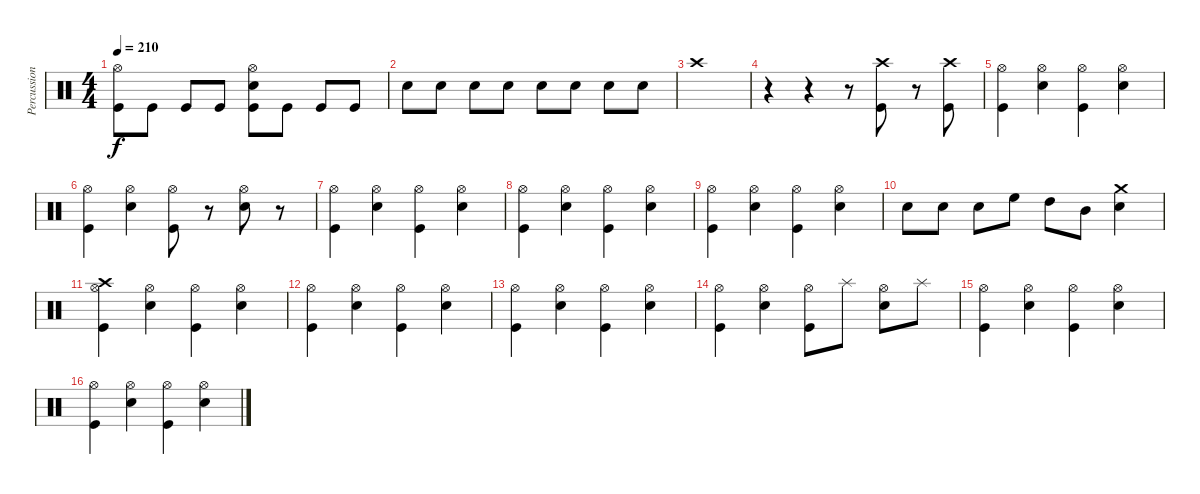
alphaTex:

\track ("Percussion" "Percussion") {instrument percussion}
\staff {score}
\articulation defaults
\ts (4 4)
\tempo 210
\clef neutral
\ks c
("Hi-Hat (open)" "Kick (hit)").8{dy f} "Kick (hit)".8 "Kick (hit)".8 "Kick (hit)".8 ("Snare (hit) 2" "Hi-Hat (open)" "Kick (hit)").8 "Kick (hit)".8 "Kick (hit)".8 "Kick (hit)".8 |
"Snare (hit) 2".8{volume 0} "Snare (hit) 2".8{volume 16} "Snare (hit) 2".8 "Snare (hit) 2".8 "Snare (hit) 2".8 "Snare (hit) 2".8 "Snare (hit) 2".8 "Snare (hit) 2".8 |
"Crash high (hit)".1 |
r.4 r.4 r.8 ("Crash high (hit)" "Kick (hit)").8 r.8 ("Crash high (hit)" "Kick (hit)").8 |
("Hi-Hat (open)" "Kick (hit)").4 ("Snare (hit) 2" "Hi-Hat (open)").4 ("Hi-Hat (open)" "Kick (hit)").4 ("Snare (hit) 2" "Hi-Hat (open)").4 |
("Hi-Hat (open)" "Kick (hit)").4 ("Snare (hit) 2" "Hi-Hat (open)").4 ("Hi-Hat (open)" "Kick (hit)").8 r.8 ("Snare (hit) 2" "Hi-Hat (open)").8 r.8 |
("Hi-Hat (open)" "Kick (hit)").4 ("Snare (hit) 2" "Hi-Hat (open)").4 ("Hi-Hat (open)" "Kick (hit)").4 ("Snare (hit) 2" "Hi-Hat (open)").4 |
("Hi-Hat (open)" "Kick (hit)").4 ("Snare (hit) 2" "Hi-Hat (open)").4 ("Hi-Hat (open)" "Kick (hit)").4 ("Snare (hit) 2" "Hi-Hat (open)").4 |
("Hi-Hat (open)" "Kick (hit)").4 ("Snare (hit) 2" "Hi-Hat (open)").4 ("Hi-Hat (open)" "Kick (hit)").4 ("Snare (hit) 2" "Hi-Hat (open)").4 |
"Snare (hit) 2".8 "Snare (hit) 2".8 "Snare (hit) 2".8 "High Floor Tom (hit)".8 "High Tom (hit)".8 "Mid Tom (hit)".8 ("Snare (hit) 2" "Crash medium (hit)").4 |
("Crash high (hit)" "Hi-Hat (open)" "Kick (hit)").4 ("Snare (hit) 2" "Hi-Hat (open)").4 ("Hi-Hat (open)" "Kick (hit)").4 ("Snare (hit) 2" "Hi-Hat (open)").4 |
("Hi-Hat (open)" "Kick (hit)").4 ("Snare (hit) 2" "Hi-Hat (open)").4 ("Hi-Hat (open)" "Kick (hit)").4 ("Snare (hit) 2" "Hi-Hat (open)").4 |
("Hi-Hat (open)" "Kick (hit)").4 ("Snare (hit) 2" "Hi-Hat (open)").4 ("Hi-Hat (open)" "Kick (hit)").4 ("Snare (hit) 2" "Hi-Hat (open)").4 |
("Hi-Hat (open)" "Kick (hit)").4 ("Snare (hit) 2" "Hi-Hat (open)").4 ("Hi-Hat (open)" "Kick (hit)").8 "Splash (hit)".8 ("Snare (hit) 2" "Hi-Hat (open)").8 "Splash (hit)".8 |
("Hi-Hat (open)" "Kick (hit)").4 ("Snare (hit) 2" "Hi-Hat (open)").4 ("Hi-Hat (open)" "Kick (hit)").4 ("Snare (hit) 2" "Hi-Hat (open)").4 |
("Hi-Hat (open)" "Kick (hit)").4 ("Snare (hit) 2" "Hi-Hat (open)").4 ("Hi-Hat (open)" "Kick (hit)").4 ("Snare (hit) 2" "Hi-Hat (open)").4
